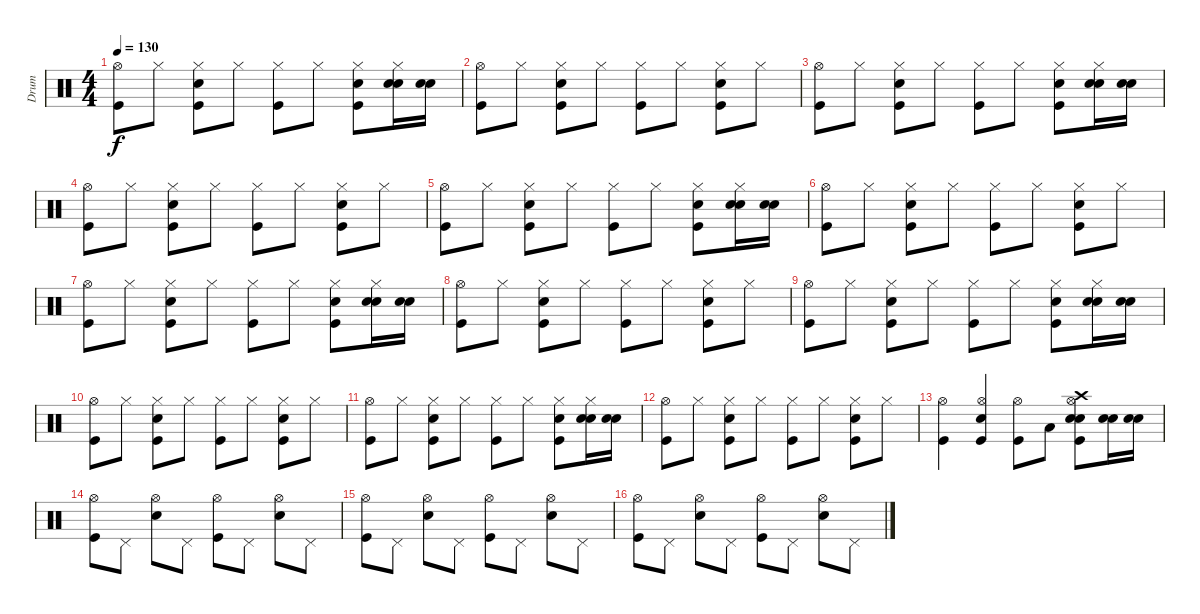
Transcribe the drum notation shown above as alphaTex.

\track ("Drum" "Drum") {instrument percussion}
\staff {score}
\articulation defaults
\ts (4 4)
\tempo 130
\clef neutral
\ks c
("Kick (hit)" "Hi-Hat (open)").8{dy f} "Hi-Hat (closed)".8 ("Kick (hit)" "Snare (hit) 2" "Hi-Hat (closed)").8 "Hi-Hat (closed)".8 ("Hi-Hat (closed)" "Kick (hit)").8 "Hi-Hat (closed)".8 ("Kick (hit)" "Snare (hit) 2" "Hi-Hat (closed)").8 ("Snare (hit) 2" "Snare (hit) 2" "Hi-Hat (closed)").16 ("Snare (hit) 2" "Snare (hit) 2").16 |
("Kick (hit)" "Hi-Hat (open)").8 "Hi-Hat (closed)".8 ("Kick (hit)" "Snare (hit) 2" "Hi-Hat (closed)").8 "Hi-Hat (closed)".8 ("Hi-Hat (closed)" "Kick (hit)").8 "Hi-Hat (closed)".8 ("Kick (hit)" "Snare (hit) 2" "Hi-Hat (closed)").8 "Hi-Hat (closed)".8 |
("Kick (hit)" "Hi-Hat (open)").8 "Hi-Hat (closed)".8 ("Kick (hit)" "Snare (hit) 2" "Hi-Hat (closed)").8 "Hi-Hat (closed)".8 ("Hi-Hat (closed)" "Kick (hit)").8 "Hi-Hat (closed)".8 ("Kick (hit)" "Snare (hit) 2" "Hi-Hat (closed)").8 ("Snare (hit) 2" "Snare (hit) 2" "Hi-Hat (closed)").16 ("Snare (hit) 2" "Snare (hit) 2").16 |
("Kick (hit)" "Hi-Hat (open)").8 "Hi-Hat (closed)".8 ("Kick (hit)" "Snare (hit) 2" "Hi-Hat (closed)").8 "Hi-Hat (closed)".8 ("Hi-Hat (closed)" "Kick (hit)").8 "Hi-Hat (closed)".8 ("Kick (hit)" "Snare (hit) 2" "Hi-Hat (closed)").8 "Hi-Hat (closed)".8 |
("Kick (hit)" "Hi-Hat (open)").8 "Hi-Hat (closed)".8 ("Kick (hit)" "Snare (hit) 2" "Hi-Hat (closed)").8 "Hi-Hat (closed)".8 ("Hi-Hat (closed)" "Kick (hit)").8 "Hi-Hat (closed)".8 ("Kick (hit)" "Snare (hit) 2" "Hi-Hat (closed)").8 ("Snare (hit) 2" "Snare (hit) 2" "Hi-Hat (closed)").16 ("Snare (hit) 2" "Snare (hit) 2").16 |
("Kick (hit)" "Hi-Hat (open)").8 "Hi-Hat (closed)".8 ("Kick (hit)" "Snare (hit) 2" "Hi-Hat (closed)").8 "Hi-Hat (closed)".8 ("Hi-Hat (closed)" "Kick (hit)").8 "Hi-Hat (closed)".8 ("Kick (hit)" "Snare (hit) 2" "Hi-Hat (closed)").8 "Hi-Hat (closed)".8 |
("Kick (hit)" "Hi-Hat (open)").8 "Hi-Hat (closed)".8 ("Kick (hit)" "Snare (hit) 2" "Hi-Hat (closed)").8 "Hi-Hat (closed)".8 ("Hi-Hat (closed)" "Kick (hit)").8 "Hi-Hat (closed)".8 ("Kick (hit)" "Snare (hit) 2" "Hi-Hat (closed)").8 ("Snare (hit) 2" "Snare (hit) 2" "Hi-Hat (closed)").16 ("Snare (hit) 2" "Snare (hit) 2").16 |
("Kick (hit)" "Hi-Hat (open)").8 "Hi-Hat (closed)".8 ("Kick (hit)" "Snare (hit) 2" "Hi-Hat (closed)").8 "Hi-Hat (closed)".8 ("Hi-Hat (closed)" "Kick (hit)").8 "Hi-Hat (closed)".8 ("Kick (hit)" "Snare (hit) 2" "Hi-Hat (closed)").8 "Hi-Hat (closed)".8 |
("Kick (hit)" "Hi-Hat (open)").8 "Hi-Hat (closed)".8 ("Kick (hit)" "Snare (hit) 2" "Hi-Hat (closed)").8 "Hi-Hat (closed)".8 ("Hi-Hat (closed)" "Kick (hit)").8 "Hi-Hat (closed)".8 ("Kick (hit)" "Snare (hit) 2" "Hi-Hat (closed)").8 ("Snare (hit) 2" "Snare (hit) 2" "Hi-Hat (closed)").16 ("Snare (hit) 2" "Snare (hit) 2").16 |
("Kick (hit)" "Hi-Hat (open)").8 "Hi-Hat (closed)".8 ("Kick (hit)" "Snare (hit) 2" "Hi-Hat (closed)").8 "Hi-Hat (closed)".8 ("Hi-Hat (closed)" "Kick (hit)").8 "Hi-Hat (closed)".8 ("Kick (hit)" "Snare (hit) 2" "Hi-Hat (closed)").8 "Hi-Hat (closed)".8 |
("Kick (hit)" "Hi-Hat (open)").8 "Hi-Hat (closed)".8 ("Kick (hit)" "Snare (hit) 2" "Hi-Hat (closed)").8 "Hi-Hat (closed)".8 ("Hi-Hat (closed)" "Kick (hit)").8 "Hi-Hat (closed)".8 ("Kick (hit)" "Snare (hit) 2" "Hi-Hat (closed)").8 ("Snare (hit) 2" "Snare (hit) 2" "Hi-Hat (closed)").16 ("Snare (hit) 2" "Snare (hit) 2").16 |
("Kick (hit)" "Hi-Hat (open)").8 "Hi-Hat (closed)".8 ("Kick (hit)" "Snare (hit) 2" "Hi-Hat (closed)").8 "Hi-Hat (closed)".8 ("Hi-Hat (closed)" "Kick (hit)").8 "Hi-Hat (closed)".8 ("Kick (hit)" "Snare (hit) 2" "Hi-Hat (closed)").8 "Hi-Hat (closed)".8 |
("Kick (hit)" "Hi-Hat (open)").4 ("Kick (hit)" "Snare (hit) 2" "Hi-Hat (open)").4 ("Kick (hit)" "Hi-Hat (open)").8 "Low Tom (hit)".8 ("Kick (hit)" "Snare (hit) 2" "Hi-Hat (open)" "Crash high (hit)" "Snare (hit) 2").8 ("Snare (hit) 2" "Snare (hit) 2").16 ("Snare (hit) 2" "Snare (hit) 2").16 |
("Kick (hit)" "Hi-Hat (open)").8 "Pedal Hi-Hat (hit)".8 ("Snare (hit) 2" "Hi-Hat (open)").8 "Pedal Hi-Hat (hit)".8 ("Kick (hit)" "Hi-Hat (open)").8 "Pedal Hi-Hat (hit)".8 ("Snare (hit) 2" "Hi-Hat (open)").8 "Pedal Hi-Hat (hit)".8 |
("Kick (hit)" "Hi-Hat (open)").8 "Pedal Hi-Hat (hit)".8 ("Snare (hit) 2" "Hi-Hat (open)").8 "Pedal Hi-Hat (hit)".8 ("Kick (hit)" "Hi-Hat (open)").8 "Pedal Hi-Hat (hit)".8 ("Snare (hit) 2" "Hi-Hat (open)").8 "Pedal Hi-Hat (hit)".8 |
("Kick (hit)" "Hi-Hat (open)").8 "Pedal Hi-Hat (hit)".8 ("Snare (hit) 2" "Hi-Hat (open)").8 "Pedal Hi-Hat (hit)".8 ("Kick (hit)" "Hi-Hat (open)").8 "Pedal Hi-Hat (hit)".8 ("Snare (hit) 2" "Hi-Hat (open)").8 "Pedal Hi-Hat (hit)".8
